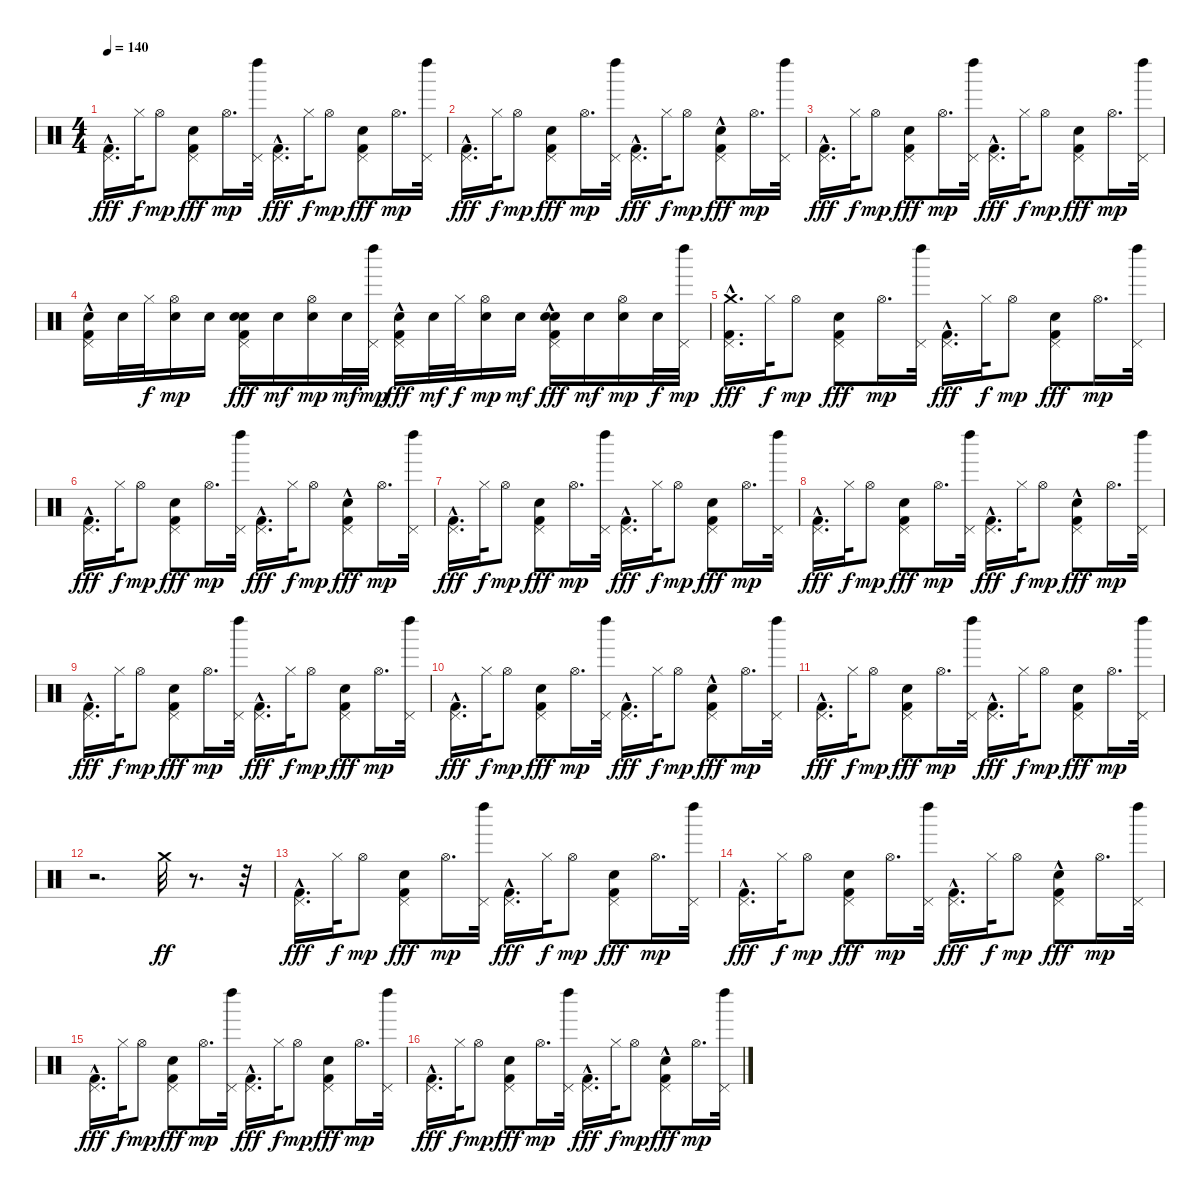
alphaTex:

\track "" {instrument percussion}
\staff {score}
\articulation defaults
\ts (4 4)
\tempo 140
\clef neutral
\ks c
("Pedal Hi-Hat (hit)"{hac} "Kick (hit) 2").16{d dy fff} "Hi-Hat (closed)".32{dy f} "Hi-Hat (open)".8{dy mp} ("Hand Clap (hit)" "Kick (hit) 2" "Pedal Hi-Hat (hit)").8{dy fff} "Hi-Hat (open)".16{d dy mp} ("Left Maraca (hit)" "Pedal Hi-Hat (hit)").32 ("Pedal Hi-Hat (hit)"{hac} "Kick (hit) 2").16{d dy fff} "Hi-Hat (closed)".32{dy f} "Hi-Hat (open)".8{dy mp} ("Hand Clap (hit)" "Pedal Hi-Hat (hit)" "Kick (hit) 2").8{dy fff} "Hi-Hat (open)".16{d dy mp} ("Left Maraca (hit)" "Pedal Hi-Hat (hit)").32 |
("Pedal Hi-Hat (hit)"{hac} "Kick (hit) 2").16{d dy fff} "Hi-Hat (closed)".32{dy f} "Hi-Hat (open)".8{dy mp} ("Pedal Hi-Hat (hit)" "Kick (hit) 2" "Hand Clap (hit)").8{dy fff} "Hi-Hat (open)".16{d dy mp} ("Left Maraca (hit)" "Pedal Hi-Hat (hit)").32 ("Pedal Hi-Hat (hit)"{hac} "Kick (hit) 2").16{d dy fff} "Hi-Hat (closed)".32{dy f} "Hi-Hat (open)".8{dy mp} ("Kick (hit) 2" "Hand Clap (hit)"{hac} "Pedal Hi-Hat (hit)").8{dy fff} "Hi-Hat (open)".16{d dy mp} ("Left Maraca (hit)" "Pedal Hi-Hat (hit)").32 |
("Pedal Hi-Hat (hit)"{hac} "Kick (hit) 2").16{d dy fff} "Hi-Hat (closed)".32{dy f} "Hi-Hat (open)".8{dy mp} ("Hand Clap (hit)" "Pedal Hi-Hat (hit)" "Kick (hit) 2").8{dy fff} "Hi-Hat (open)".16{d dy mp} ("Left Maraca (hit)" "Pedal Hi-Hat (hit)").32 ("Kick (hit) 2" "Pedal Hi-Hat (hit)"{hac}).16{d dy fff} "Hi-Hat (closed)".32{dy f} "Hi-Hat (open)".8{dy mp} ("Pedal Hi-Hat (hit)" "Hand Clap (hit)" "Kick (hit) 2").8{dy fff} "Hi-Hat (open)".16{d dy mp} ("Left Maraca (hit)" "Pedal Hi-Hat (hit)").32 |
("Pedal Hi-Hat (hit)"{hac} "Kick (hit) 2" "Electric Snare (hit)").16 "Electric Snare (hit)".32 "Hi-Hat (closed)".32{dy f} ("Electric Snare (hit)" "Hi-Hat (open)").16{dy mp} "Electric Snare (hit)".16 ("Electric Snare (hit)" "Kick (hit) 2" "Hand Clap (hit)" "Pedal Hi-Hat (hit)").16{dy fff} "Electric Snare (hit)".16{dy mf} ("Electric Snare (hit)" "Hi-Hat (open)").16{dy mp} "Electric Snare (hit)".32{dy mf} ("Left Maraca (hit)" "Pedal Hi-Hat (hit)").32{dy mp} ("Electric Snare (hit)" "Kick (hit) 2" "Pedal Hi-Hat (hit)"{hac}).16{dy fff} "Electric Snare (hit)".32{dy mf} "Hi-Hat (closed)".32{dy f} ("Electric Snare (hit)" "Hi-Hat (open)").16{dy mp} "Electric Snare (hit)".16{dy mf} ("Electric Snare (hit)" "Pedal Hi-Hat (hit)" "Kick (hit) 2" "Hand Clap (hit)"{hac}).16{dy fff} "Electric Snare (hit)".16{dy mf} ("Electric Snare (hit)" "Hi-Hat (open)").16{dy mp} "Electric Snare (hit)".32{dy f} ("Left Maraca (hit)" "Pedal Hi-Hat (hit)").32{dy mp} |
("Pedal Hi-Hat (hit)"{hac} "Kick (hit) 2" "Crash medium (hit)").16{d dy fff} "Hi-Hat (closed)".32{dy f} "Hi-Hat (open)".8{dy mp} ("Kick (hit) 2" "Hand Clap (hit)" "Pedal Hi-Hat (hit)").8{dy fff} "Hi-Hat (open)".16{d dy mp} ("Left Maraca (hit)" "Pedal Hi-Hat (hit)").32 ("Pedal Hi-Hat (hit)"{hac} "Kick (hit) 2").16{d dy fff} "Hi-Hat (closed)".32{dy f} "Hi-Hat (open)".8{dy mp} ("Hand Clap (hit)" "Kick (hit) 2" "Pedal Hi-Hat (hit)").8{dy fff} "Hi-Hat (open)".16{d dy mp} ("Left Maraca (hit)" "Pedal Hi-Hat (hit)").32 |
("Pedal Hi-Hat (hit)"{hac} "Kick (hit) 2").16{d dy fff} "Hi-Hat (closed)".32{dy f} "Hi-Hat (open)".8{dy mp} ("Pedal Hi-Hat (hit)" "Hand Clap (hit)" "Kick (hit) 2").8{dy fff} "Hi-Hat (open)".16{d dy mp} ("Pedal Hi-Hat (hit)" "Left Maraca (hit)").32 ("Kick (hit) 2" "Pedal Hi-Hat (hit)"{hac}).16{d dy fff} "Hi-Hat (closed)".32{dy f} "Hi-Hat (open)".8{dy mp} ("Hand Clap (hit)"{hac} "Pedal Hi-Hat (hit)" "Kick (hit) 2").8{dy fff} "Hi-Hat (open)".16{d dy mp} ("Pedal Hi-Hat (hit)" "Left Maraca (hit)").32 |
("Kick (hit) 2" "Pedal Hi-Hat (hit)"{hac}).16{d dy fff} "Hi-Hat (closed)".32{dy f} "Hi-Hat (open)".8{dy mp} ("Pedal Hi-Hat (hit)" "Kick (hit) 2" "Hand Clap (hit)").8{dy fff} "Hi-Hat (open)".16{d dy mp} ("Left Maraca (hit)" "Pedal Hi-Hat (hit)").32 ("Kick (hit) 2" "Pedal Hi-Hat (hit)"{hac}).16{d dy fff} "Hi-Hat (closed)".32{dy f} "Hi-Hat (open)".8{dy mp} ("Pedal Hi-Hat (hit)" "Kick (hit) 2" "Hand Clap (hit)").8{dy fff} "Hi-Hat (open)".16{d dy mp} ("Left Maraca (hit)" "Pedal Hi-Hat (hit)").32 |
("Kick (hit) 2" "Pedal Hi-Hat (hit)"{hac}).16{d dy fff} "Hi-Hat (closed)".32{dy f} "Hi-Hat (open)".8{dy mp} ("Hand Clap (hit)" "Kick (hit) 2" "Pedal Hi-Hat (hit)").8{dy fff} "Hi-Hat (open)".16{d dy mp} ("Pedal Hi-Hat (hit)" "Left Maraca (hit)").32 ("Kick (hit) 2" "Pedal Hi-Hat (hit)"{hac}).16{d dy fff} "Hi-Hat (closed)".32{dy f} "Hi-Hat (open)".8{dy mp} ("Hand Clap (hit)"{hac} "Kick (hit) 2" "Pedal Hi-Hat (hit)").8{dy fff} "Hi-Hat (open)".16{d dy mp} ("Pedal Hi-Hat (hit)" "Left Maraca (hit)").32 |
("Pedal Hi-Hat (hit)"{hac} "Kick (hit) 2").16{d dy fff} "Hi-Hat (closed)".32{dy f} "Hi-Hat (open)".8{dy mp} ("Pedal Hi-Hat (hit)" "Kick (hit) 2" "Hand Clap (hit)").8{dy fff} "Hi-Hat (open)".16{d dy mp} ("Pedal Hi-Hat (hit)" "Left Maraca (hit)").32 ("Kick (hit) 2" "Pedal Hi-Hat (hit)"{hac}).16{d dy fff} "Hi-Hat (closed)".32{dy f} "Hi-Hat (open)".8{dy mp} ("Pedal Hi-Hat (hit)" "Kick (hit) 2" "Hand Clap (hit)").8{dy fff} "Hi-Hat (open)".16{d dy mp} ("Pedal Hi-Hat (hit)" "Left Maraca (hit)").32 |
("Pedal Hi-Hat (hit)"{hac} "Kick (hit) 2").16{d dy fff} "Hi-Hat (closed)".32{dy f} "Hi-Hat (open)".8{dy mp} ("Hand Clap (hit)" "Pedal Hi-Hat (hit)" "Kick (hit) 2").8{dy fff} "Hi-Hat (open)".16{d dy mp} ("Pedal Hi-Hat (hit)" "Left Maraca (hit)").32 ("Kick (hit) 2" "Pedal Hi-Hat (hit)"{hac}).16{d dy fff} "Hi-Hat (closed)".32{dy f} "Hi-Hat (open)".8{dy mp} ("Hand Clap (hit)"{hac} "Pedal Hi-Hat (hit)" "Kick (hit) 2").8{dy fff} "Hi-Hat (open)".16{d dy mp} ("Left Maraca (hit)" "Pedal Hi-Hat (hit)").32 |
("Pedal Hi-Hat (hit)"{hac} "Kick (hit) 2").16{d dy fff} "Hi-Hat (closed)".32{dy f} "Hi-Hat (open)".8{dy mp} ("Pedal Hi-Hat (hit)" "Kick (hit) 2" "Hand Clap (hit)").8{dy fff} "Hi-Hat (open)".16{d dy mp} ("Pedal Hi-Hat (hit)" "Left Maraca (hit)").32 ("Pedal Hi-Hat (hit)"{hac} "Kick (hit) 2").16{d dy fff} "Hi-Hat (closed)".32{dy f} "Hi-Hat (open)".8{dy mp} ("Pedal Hi-Hat (hit)" "Kick (hit) 2" "Hand Clap (hit)").8{dy fff} "Hi-Hat (open)".16{d dy mp} ("Left Maraca (hit)" "Pedal Hi-Hat (hit)").32 |
r.2{d} "Crash medium (hit)".32{dy ff} r.8{d} r.32 |
("Pedal Hi-Hat (hit)"{hac} "Kick (hit) 2").16{d dy fff} "Hi-Hat (closed)".32{dy f} "Hi-Hat (open)".8{dy mp} ("Kick (hit) 2" "Pedal Hi-Hat (hit)" "Hand Clap (hit)").8{dy fff} "Hi-Hat (open)".16{d dy mp} ("Left Maraca (hit)" "Pedal Hi-Hat (hit)").32 ("Pedal Hi-Hat (hit)"{hac} "Kick (hit) 2").16{d dy fff} "Hi-Hat (closed)".32{dy f} "Hi-Hat (open)".8{dy mp} ("Hand Clap (hit)" "Pedal Hi-Hat (hit)" "Kick (hit) 2").8{dy fff} "Hi-Hat (open)".16{d dy mp} ("Pedal Hi-Hat (hit)" "Left Maraca (hit)").32 |
("Kick (hit) 2" "Pedal Hi-Hat (hit)"{hac}).16{d dy fff} "Hi-Hat (closed)".32{dy f} "Hi-Hat (open)".8{dy mp} ("Hand Clap (hit)" "Kick (hit) 2" "Pedal Hi-Hat (hit)").8{dy fff} "Hi-Hat (open)".16{d dy mp} ("Pedal Hi-Hat (hit)" "Left Maraca (hit)").32 ("Kick (hit) 2" "Pedal Hi-Hat (hit)"{hac}).16{d dy fff} "Hi-Hat (closed)".32{dy f} "Hi-Hat (open)".8{dy mp} ("Kick (hit) 2" "Hand Clap (hit)"{hac} "Pedal Hi-Hat (hit)").8{dy fff} "Hi-Hat (open)".16{d dy mp} ("Left Maraca (hit)" "Pedal Hi-Hat (hit)").32 |
("Pedal Hi-Hat (hit)"{hac} "Kick (hit) 2").16{d dy fff} "Hi-Hat (closed)".32{dy f} "Hi-Hat (open)".8{dy mp} ("Hand Clap (hit)" "Kick (hit) 2" "Pedal Hi-Hat (hit)").8{dy fff} "Hi-Hat (open)".16{d dy mp} ("Left Maraca (hit)" "Pedal Hi-Hat (hit)").32 ("Pedal Hi-Hat (hit)"{hac} "Kick (hit) 2").16{d dy fff} "Hi-Hat (closed)".32{dy f} "Hi-Hat (open)".8{dy mp} ("Pedal Hi-Hat (hit)" "Hand Clap (hit)" "Kick (hit) 2").8{dy fff} "Hi-Hat (open)".16{d dy mp} ("Pedal Hi-Hat (hit)" "Left Maraca (hit)").32 |
("Kick (hit) 2" "Pedal Hi-Hat (hit)"{hac}).16{d dy fff} "Hi-Hat (closed)".32{dy f} "Hi-Hat (open)".8{dy mp} ("Hand Clap (hit)" "Pedal Hi-Hat (hit)" "Kick (hit) 2").8{dy fff} "Hi-Hat (open)".16{d dy mp} ("Pedal Hi-Hat (hit)" "Left Maraca (hit)").32 ("Kick (hit) 2" "Pedal Hi-Hat (hit)"{hac}).16{d dy fff} "Hi-Hat (closed)".32{dy f} "Hi-Hat (open)".8{dy mp} ("Pedal Hi-Hat (hit)" "Kick (hit) 2" "Hand Clap (hit)"{hac}).8{dy fff} "Hi-Hat (open)".16{d dy mp} ("Left Maraca (hit)" "Pedal Hi-Hat (hit)").32
